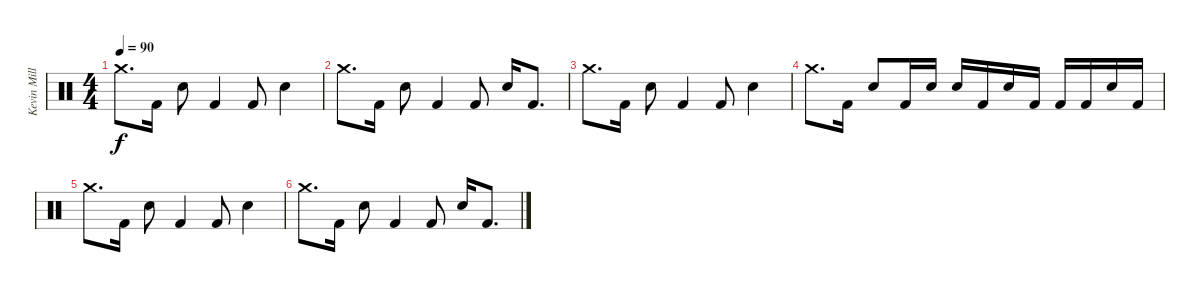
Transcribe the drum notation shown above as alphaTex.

\track ("Kevin Miller (Drums)" "Kevin Mill") {instrument percussion}
\staff {score}
\articulation defaults
\ts (4 4)
\tempo 90
\clef neutral
\ks c "Crash medium (hit)".8{d dy f} "Kick (hit) 2".16 "Electric Snare (hit)".8 "Kick (hit) 2".4 "Kick (hit) 2".8 "Electric Snare (hit)".4
|
"Crash medium (hit)".8{d} "Kick (hit) 2".16 "Electric Snare (hit)".8 "Kick (hit) 2".4 "Kick (hit) 2".8 "Electric Snare (hit)".16 "Kick (hit) 2".8{d} |
"Crash medium (hit)".8{d} "Kick (hit) 2".16 "Electric Snare (hit)".8 "Kick (hit) 2".4 "Kick (hit) 2".8 "Electric Snare (hit)".4 |
"Crash medium (hit)".8{d} "Kick (hit) 2".16 "Electric Snare (hit)".8 "Kick (hit) 2".16 "Electric Snare (hit)".16 "Electric Snare (hit)".16 "Kick (hit) 2".16 "Electric Snare (hit)".16 "Kick (hit) 2".16 "Kick (hit) 2".16 "Kick (hit) 2".16 "Electric Snare (hit)".16 "Kick (hit) 2".16 |
"Crash medium (hit)".8{d} "Kick (hit) 2".16 "Electric Snare (hit)".8 "Kick (hit) 2".4 "Kick (hit) 2".8 "Electric Snare (hit)".4 |
"Crash medium (hit)".8{d} "Kick (hit) 2".16 "Electric Snare (hit)".8 "Kick (hit) 2".4 "Kick (hit) 2".8 "Electric Snare (hit)".16 "Kick (hit) 2".8{d}
